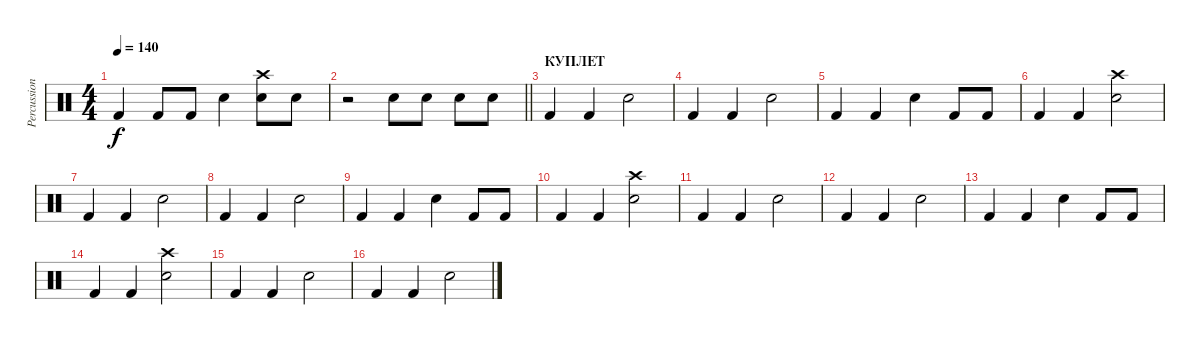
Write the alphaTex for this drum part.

\track ("Percussion" "Percussion") {instrument percussion}
\staff {score}
\articulation defaults
\ts (4 4)
\tempo 140
\clef neutral
\ks c "Kick (hit) 2".4{dy f} "Kick (hit) 2".8 "Kick (hit) 2".8 "Snare (hit) 2".4
("Crash high (hit)" "Snare (hit) 2").8 "Snare (hit) 2".8 |
\barLineRight lightlight
r.2 "Snare (hit) 2".8 "Snare (hit) 2".8 "Snare (hit) 2".8 "Snare (hit) 2".8 |
\section ("" "КУПЛЕТ")
"Kick (hit) 2".4 "Kick (hit) 2".4 "Snare (hit) 2".2 |
"Kick (hit) 2".4 "Kick (hit) 2".4 "Snare (hit) 2".2 |
"Kick (hit) 2".4 "Kick (hit) 2".4 "Snare (hit) 2".4 "Kick (hit) 2".8 "Kick (hit) 2".8 |
"Kick (hit) 2".4 "Kick (hit) 2".4 ("Crash high (hit)" "Snare (hit) 2").2 |
"Kick (hit) 2".4 "Kick (hit) 2".4 "Snare (hit) 2".2 |
"Kick (hit) 2".4 "Kick (hit) 2".4 "Snare (hit) 2".2 |
"Kick (hit) 2".4 "Kick (hit) 2".4 "Snare (hit) 2".4 "Kick (hit) 2".8 "Kick (hit) 2".8 |
"Kick (hit) 2".4 "Kick (hit) 2".4 ("Crash high (hit)" "Snare (hit) 2").2 |
"Kick (hit) 2".4 "Kick (hit) 2".4 "Snare (hit) 2".2 |
"Kick (hit) 2".4 "Kick (hit) 2".4 "Snare (hit) 2".2 |
"Kick (hit) 2".4 "Kick (hit) 2".4 "Snare (hit) 2".4 "Kick (hit) 2".8 "Kick (hit) 2".8 |
"Kick (hit) 2".4 "Kick (hit) 2".4 ("Crash high (hit)" "Snare (hit) 2").2 |
"Kick (hit) 2".4 "Kick (hit) 2".4 "Snare (hit) 2".2 |
"Kick (hit) 2".4 "Kick (hit) 2".4 "Snare (hit) 2".2
